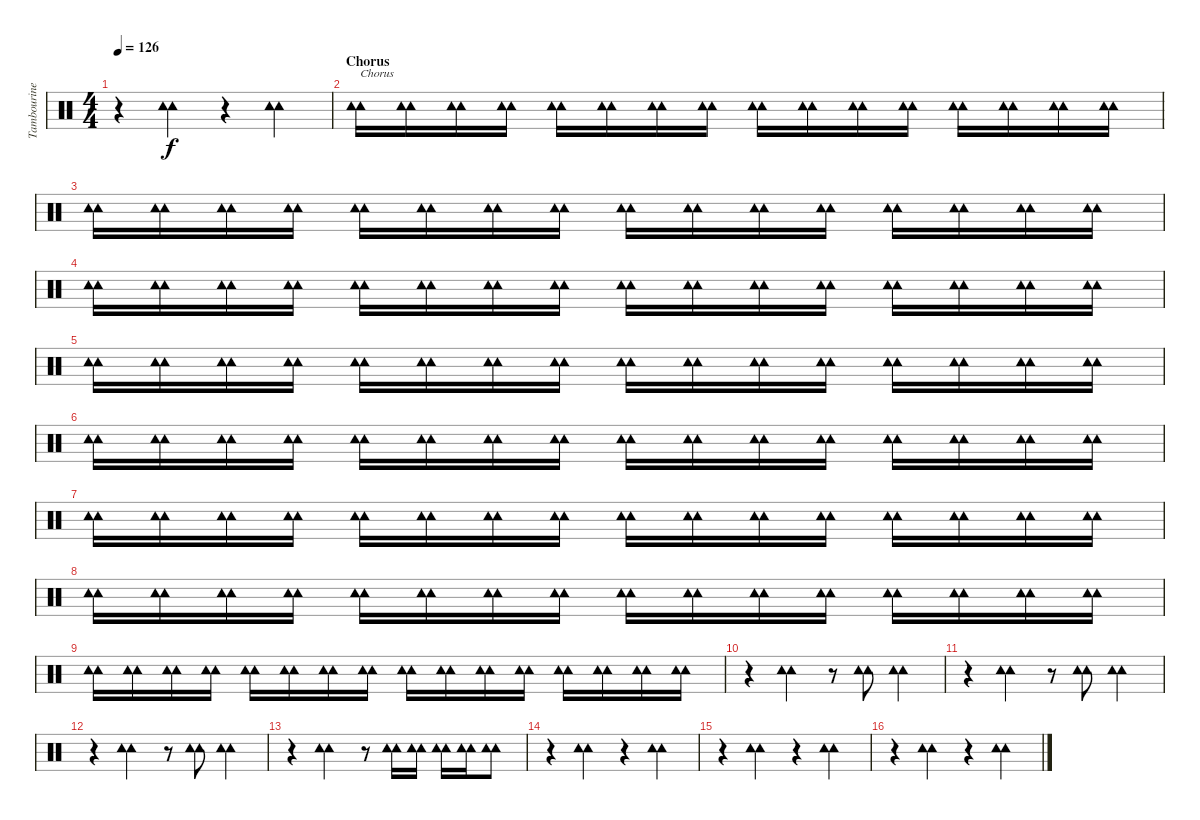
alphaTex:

\track ("Tambourine" "Tambourine") {instrument percussion}
\staff {score}
\articulation defaults
\ts (4 4)
\tempo 126
\clef neutral
\ks c
r.4{dy f} ("Tambourine (hit)" "Tambourine (hit)").4 r.4 ("Tambourine (hit)" "Tambourine (hit)").4 |
\section ("" "Chorus ")
("Tambourine (hit)" "Tambourine (hit)").16{txt "Chorus"} ("Tambourine (hit)" "Tambourine (hit)").16 ("Tambourine (hit)" "Tambourine (hit)").16 ("Tambourine (hit)" "Tambourine (hit)").16 ("Tambourine (hit)" "Tambourine (hit)").16 ("Tambourine (hit)" "Tambourine (hit)").16 ("Tambourine (hit)" "Tambourine (hit)").16 ("Tambourine (hit)" "Tambourine (hit)").16 ("Tambourine (hit)" "Tambourine (hit)").16 ("Tambourine (hit)" "Tambourine (hit)").16 ("Tambourine (hit)" "Tambourine (hit)").16 ("Tambourine (hit)" "Tambourine (hit)").16 ("Tambourine (hit)" "Tambourine (hit)").16 ("Tambourine (hit)" "Tambourine (hit)").16 ("Tambourine (hit)" "Tambourine (hit)").16 ("Tambourine (hit)" "Tambourine (hit)").16 |
("Tambourine (hit)" "Tambourine (hit)").16 ("Tambourine (hit)" "Tambourine (hit)").16 ("Tambourine (hit)" "Tambourine (hit)").16 ("Tambourine (hit)" "Tambourine (hit)").16 ("Tambourine (hit)" "Tambourine (hit)").16 ("Tambourine (hit)" "Tambourine (hit)").16 ("Tambourine (hit)" "Tambourine (hit)").16 ("Tambourine (hit)" "Tambourine (hit)").16 ("Tambourine (hit)" "Tambourine (hit)").16 ("Tambourine (hit)" "Tambourine (hit)").16 ("Tambourine (hit)" "Tambourine (hit)").16 ("Tambourine (hit)" "Tambourine (hit)").16 ("Tambourine (hit)" "Tambourine (hit)").16 ("Tambourine (hit)" "Tambourine (hit)").16 ("Tambourine (hit)" "Tambourine (hit)").16 ("Tambourine (hit)" "Tambourine (hit)").16 |
("Tambourine (hit)" "Tambourine (hit)").16 ("Tambourine (hit)" "Tambourine (hit)").16 ("Tambourine (hit)" "Tambourine (hit)").16 ("Tambourine (hit)" "Tambourine (hit)").16 ("Tambourine (hit)" "Tambourine (hit)").16 ("Tambourine (hit)" "Tambourine (hit)").16 ("Tambourine (hit)" "Tambourine (hit)").16 ("Tambourine (hit)" "Tambourine (hit)").16 ("Tambourine (hit)" "Tambourine (hit)").16 ("Tambourine (hit)" "Tambourine (hit)").16 ("Tambourine (hit)" "Tambourine (hit)").16 ("Tambourine (hit)" "Tambourine (hit)").16 ("Tambourine (hit)" "Tambourine (hit)").16 ("Tambourine (hit)" "Tambourine (hit)").16 ("Tambourine (hit)" "Tambourine (hit)").16 ("Tambourine (hit)" "Tambourine (hit)").16 |
("Tambourine (hit)" "Tambourine (hit)").16 ("Tambourine (hit)" "Tambourine (hit)").16 ("Tambourine (hit)" "Tambourine (hit)").16 ("Tambourine (hit)" "Tambourine (hit)").16 ("Tambourine (hit)" "Tambourine (hit)").16 ("Tambourine (hit)" "Tambourine (hit)").16 ("Tambourine (hit)" "Tambourine (hit)").16 ("Tambourine (hit)" "Tambourine (hit)").16 ("Tambourine (hit)" "Tambourine (hit)").16 ("Tambourine (hit)" "Tambourine (hit)").16 ("Tambourine (hit)" "Tambourine (hit)").16 ("Tambourine (hit)" "Tambourine (hit)").16 ("Tambourine (hit)" "Tambourine (hit)").16 ("Tambourine (hit)" "Tambourine (hit)").16 ("Tambourine (hit)" "Tambourine (hit)").16 ("Tambourine (hit)" "Tambourine (hit)").16 |
("Tambourine (hit)" "Tambourine (hit)").16 ("Tambourine (hit)" "Tambourine (hit)").16 ("Tambourine (hit)" "Tambourine (hit)").16 ("Tambourine (hit)" "Tambourine (hit)").16 ("Tambourine (hit)" "Tambourine (hit)").16 ("Tambourine (hit)" "Tambourine (hit)").16 ("Tambourine (hit)" "Tambourine (hit)").16 ("Tambourine (hit)" "Tambourine (hit)").16 ("Tambourine (hit)" "Tambourine (hit)").16 ("Tambourine (hit)" "Tambourine (hit)").16 ("Tambourine (hit)" "Tambourine (hit)").16 ("Tambourine (hit)" "Tambourine (hit)").16 ("Tambourine (hit)" "Tambourine (hit)").16 ("Tambourine (hit)" "Tambourine (hit)").16 ("Tambourine (hit)" "Tambourine (hit)").16 ("Tambourine (hit)" "Tambourine (hit)").16 |
("Tambourine (hit)" "Tambourine (hit)").16 ("Tambourine (hit)" "Tambourine (hit)").16 ("Tambourine (hit)" "Tambourine (hit)").16 ("Tambourine (hit)" "Tambourine (hit)").16 ("Tambourine (hit)" "Tambourine (hit)").16 ("Tambourine (hit)" "Tambourine (hit)").16 ("Tambourine (hit)" "Tambourine (hit)").16 ("Tambourine (hit)" "Tambourine (hit)").16 ("Tambourine (hit)" "Tambourine (hit)").16 ("Tambourine (hit)" "Tambourine (hit)").16 ("Tambourine (hit)" "Tambourine (hit)").16 ("Tambourine (hit)" "Tambourine (hit)").16 ("Tambourine (hit)" "Tambourine (hit)").16 ("Tambourine (hit)" "Tambourine (hit)").16 ("Tambourine (hit)" "Tambourine (hit)").16 ("Tambourine (hit)" "Tambourine (hit)").16 |
("Tambourine (hit)" "Tambourine (hit)").16 ("Tambourine (hit)" "Tambourine (hit)").16 ("Tambourine (hit)" "Tambourine (hit)").16 ("Tambourine (hit)" "Tambourine (hit)").16 ("Tambourine (hit)" "Tambourine (hit)").16 ("Tambourine (hit)" "Tambourine (hit)").16 ("Tambourine (hit)" "Tambourine (hit)").16 ("Tambourine (hit)" "Tambourine (hit)").16 ("Tambourine (hit)" "Tambourine (hit)").16 ("Tambourine (hit)" "Tambourine (hit)").16 ("Tambourine (hit)" "Tambourine (hit)").16 ("Tambourine (hit)" "Tambourine (hit)").16 ("Tambourine (hit)" "Tambourine (hit)").16 ("Tambourine (hit)" "Tambourine (hit)").16 ("Tambourine (hit)" "Tambourine (hit)").16 ("Tambourine (hit)" "Tambourine (hit)").16 |
("Tambourine (hit)" "Tambourine (hit)").16 ("Tambourine (hit)" "Tambourine (hit)").16 ("Tambourine (hit)" "Tambourine (hit)").16 ("Tambourine (hit)" "Tambourine (hit)").16 ("Tambourine (hit)" "Tambourine (hit)").16 ("Tambourine (hit)" "Tambourine (hit)").16 ("Tambourine (hit)" "Tambourine (hit)").16 ("Tambourine (hit)" "Tambourine (hit)").16 ("Tambourine (hit)" "Tambourine (hit)").16 ("Tambourine (hit)" "Tambourine (hit)").16 ("Tambourine (hit)" "Tambourine (hit)").16 ("Tambourine (hit)" "Tambourine (hit)").16 ("Tambourine (hit)" "Tambourine (hit)").16 ("Tambourine (hit)" "Tambourine (hit)").16 ("Tambourine (hit)" "Tambourine (hit)").16 ("Tambourine (hit)" "Tambourine (hit)").16 |
r.4 ("Tambourine (hit)" "Tambourine (hit)").4 r.8 ("Tambourine (hit)" "Tambourine (hit)").8 ("Tambourine (hit)" "Tambourine (hit)").4 |
r.4 ("Tambourine (hit)" "Tambourine (hit)").4 r.8 ("Tambourine (hit)" "Tambourine (hit)").8 ("Tambourine (hit)" "Tambourine (hit)").4 |
r.4 ("Tambourine (hit)" "Tambourine (hit)").4 r.8 ("Tambourine (hit)" "Tambourine (hit)").8 ("Tambourine (hit)" "Tambourine (hit)").4 |
r.4 ("Tambourine (hit)" "Tambourine (hit)").4 r.8 ("Tambourine (hit)" "Tambourine (hit)").16 ("Tambourine (hit)" "Tambourine (hit)").16 ("Tambourine (hit)" "Tambourine (hit)").16 ("Tambourine (hit)" "Tambourine (hit)").16 ("Tambourine (hit)" "Tambourine (hit)").8 |
r.4 ("Tambourine (hit)" "Tambourine (hit)").4 r.4 ("Tambourine (hit)" "Tambourine (hit)").4 |
r.4 ("Tambourine (hit)" "Tambourine (hit)").4 r.4 ("Tambourine (hit)" "Tambourine (hit)").4 |
r.4 ("Tambourine (hit)" "Tambourine (hit)").4 r.4 ("Tambourine (hit)" "Tambourine (hit)").4
